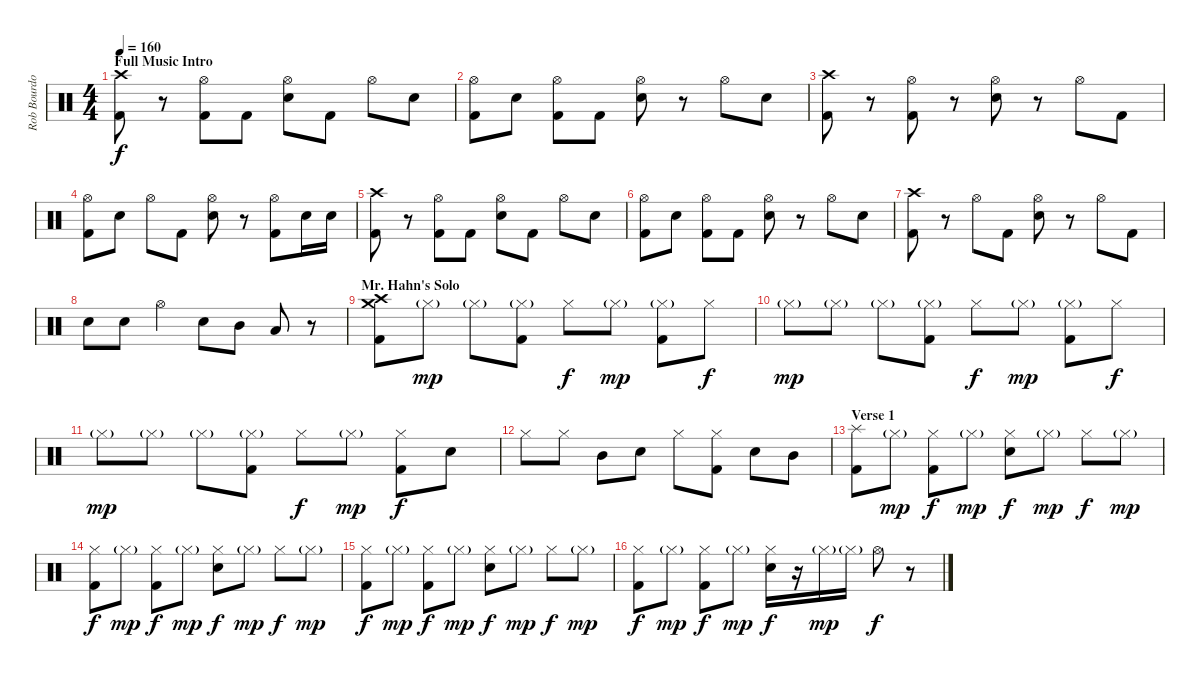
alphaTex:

\track ("Rob Bourdon (Drums)" "Rob Bourdo") {instrument percussion}
\staff {score}
\articulation defaults
\ts (4 4)
\section ("" "Full Music Intro")
\tempo 160
\clef neutral
\ks c
("Crash high (hit)" "Kick (hit) 2").8{dy f} r.8 ("Hi-Hat (open)" "Kick (hit) 2").8 "Kick (hit) 2".8 ("Hi-Hat (open)" "Electric Snare (hit)").8 "Kick (hit) 2".8 "Hi-Hat (open)".8 "Electric Snare (hit)".8 |
("Hi-Hat (open)" "Kick (hit) 2").8 "Electric Snare (hit)".8 ("Hi-Hat (open)" "Kick (hit) 2").8 "Kick (hit) 2".8 ("Hi-Hat (open)" "Electric Snare (hit)").8 r.8 "Hi-Hat (open)".8 "Electric Snare (hit)".8 |
("Crash high (hit)" "Kick (hit) 2").8 r.8 ("Hi-Hat (open)" "Kick (hit) 2").8 r.8 ("Hi-Hat (open)" "Electric Snare (hit)").8 r.8 "Hi-Hat (open)".8 "Kick (hit) 2".8 |
("Hi-Hat (open)" "Kick (hit) 2").8 "Electric Snare (hit)".8 "Hi-Hat (open)".8 "Kick (hit) 2".8 ("Hi-Hat (open)" "Electric Snare (hit)").8 r.8 ("Hi-Hat (open)" "Kick (hit) 2").8 "Electric Snare (hit)".16 "Electric Snare (hit)".16 |
("Crash high (hit)" "Kick (hit) 2").8 r.8 ("Hi-Hat (open)" "Kick (hit) 2").8 "Kick (hit) 2".8 ("Hi-Hat (open)" "Electric Snare (hit)").8 "Kick (hit) 2".8 "Hi-Hat (open)".8 "Electric Snare (hit)".8 |
("Hi-Hat (open)" "Kick (hit) 2").8 "Electric Snare (hit)".8 ("Hi-Hat (open)" "Kick (hit) 2").8 "Kick (hit) 2".8 ("Hi-Hat (open)" "Electric Snare (hit)").8 r.8 "Hi-Hat (open)".8 "Electric Snare (hit)".8 |
("Crash high (hit)" "Kick (hit) 2").8 r.8 "Hi-Hat (open)".8 "Kick (hit) 2".8 ("Hi-Hat (open)" "Electric Snare (hit)").8 r.8 "Hi-Hat (open)".8 "Kick (hit) 2".8 |
"Electric Snare (hit)".8 "Electric Snare (hit)".8 "Hi-Hat (open)".4 "Electric Snare (hit)".8 "Mid Tom (hit)".8 "Low Tom (hit)".8 r.8 |
\section ("" "Mr. Hahn's Solo")
("Crash high (hit)" "Crash medium (hit)" "Kick (hit) 2").8 "Hi-Hat (closed)"{g}.8{dy mp} "Hi-Hat (closed)"{g}.8 ("Hi-Hat (closed)"{g} "Kick (hit) 2").8 "Hi-Hat (closed)".8{dy f} "Hi-Hat (closed)"{g}.8{dy mp} ("Hi-Hat (closed)"{g} "Kick (hit) 2").8 "Hi-Hat (closed)".8{dy f} |
"Hi-Hat (closed)"{g}.8{dy mp} "Hi-Hat (closed)"{g}.8 "Hi-Hat (closed)"{g}.8 ("Hi-Hat (closed)"{g} "Kick (hit) 2").8 "Hi-Hat (closed)".8{dy f} "Hi-Hat (closed)"{g}.8{dy mp} ("Hi-Hat (closed)"{g} "Kick (hit) 2").8 "Hi-Hat (closed)".8{dy f} |
"Hi-Hat (closed)"{g}.8{dy mp} "Hi-Hat (closed)"{g}.8 "Hi-Hat (closed)"{g}.8 ("Hi-Hat (closed)"{g} "Kick (hit) 2").8 "Hi-Hat (closed)".8{dy f} "Hi-Hat (closed)"{g}.8{dy mp} ("Hi-Hat (closed)" "Kick (hit) 2").8{dy f} "Electric Snare (hit)".8 |
"Hi-Hat (closed)".8 "Hi-Hat (closed)".8 "Mid Tom (hit)".8 "Electric Snare (hit)".8 "Hi-Hat (closed)".8 ("Hi-Hat (closed)" "Kick (hit) 2").8 "Electric Snare (hit)".8 "Mid Tom (hit)".8 |
\section ("" "Verse 1")
("Splash (hit)" "Kick (hit) 2").8 "Hi-Hat (closed)"{g}.8{dy mp} ("Hi-Hat (closed)" "Kick (hit) 2").8{dy f} "Hi-Hat (closed)"{g}.8{dy mp} ("Hi-Hat (closed)" "Electric Snare (hit)").8{dy f} "Hi-Hat (closed)"{g}.8{dy mp} "Hi-Hat (closed)".8{dy f} "Hi-Hat (closed)"{g}.8{dy mp} |
("Hi-Hat (closed)" "Kick (hit) 2").8{dy f} "Hi-Hat (closed)"{g}.8{dy mp} ("Hi-Hat (closed)" "Kick (hit) 2").8{dy f} "Hi-Hat (closed)"{g}.8{dy mp} ("Hi-Hat (closed)" "Electric Snare (hit)").8{dy f} "Hi-Hat (closed)"{g}.8{dy mp} "Hi-Hat (closed)".8{dy f} "Hi-Hat (closed)"{g}.8{dy mp} |
("Hi-Hat (closed)" "Kick (hit) 2").8{dy f} "Hi-Hat (closed)"{g}.8{dy mp} ("Hi-Hat (closed)" "Kick (hit) 2").8{dy f} "Hi-Hat (closed)"{g}.8{dy mp} ("Hi-Hat (closed)" "Electric Snare (hit)").8{dy f} "Hi-Hat (closed)"{g}.8{dy mp} "Hi-Hat (closed)".8{dy f} "Hi-Hat (closed)"{g}.8{dy mp} |
("Hi-Hat (closed)" "Kick (hit) 2").8{dy f} "Hi-Hat (closed)"{g}.8{dy mp} ("Hi-Hat (closed)" "Kick (hit) 2").8{dy f} "Hi-Hat (closed)"{g}.8{dy mp} ("Hi-Hat (closed)" "Electric Snare (hit)").16{dy f} r.16 "Hi-Hat (closed)"{g}.16{dy mp} "Hi-Hat (closed)"{g}.16 "Hi-Hat (open)".8{dy f} r.8
